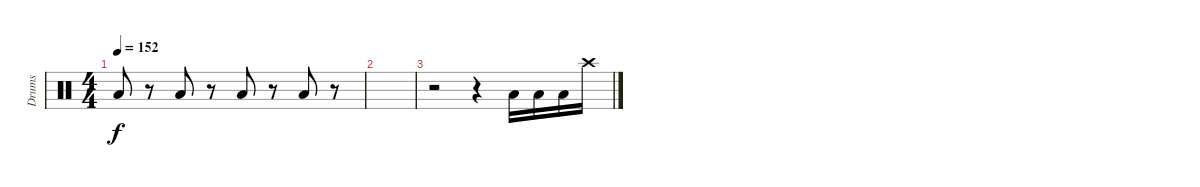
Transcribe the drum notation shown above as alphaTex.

\track ("Drums" "Drums") {instrument percussion}
\staff {score}
\articulation defaults
\ts (4 4)
\tempo 152
\clef neutral
\ks c "Low Tom (hit)".8{dy f}
r.8 "Low Tom (hit)".8 r.8 "Low Tom (hit)".8 r.8 "Low Tom (hit)".8 r.8 |
|
r.2 r.4 "Low Tom (hit)".16 "Low Tom (hit)".16 "Low Tom (hit)".16 "Crash high (hit)".16
